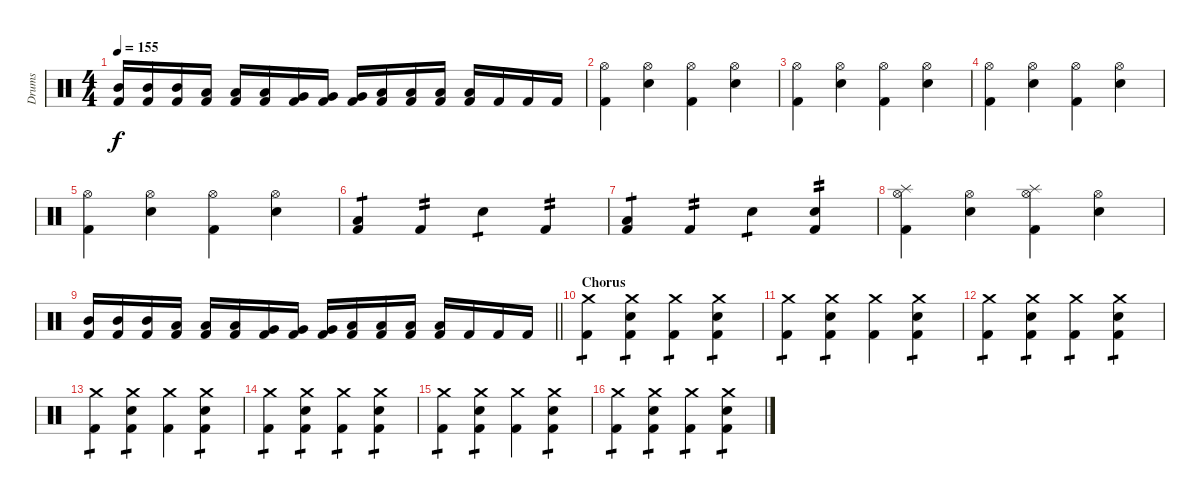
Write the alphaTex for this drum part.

\track ("Drums" "Drums") {instrument percussion}
\staff {score}
\articulation defaults
\ts (4 4)
\tempo 155
\clef neutral
\ks c
("Kick (hit) 2" "Mid Tom (hit)").16{dy f} ("Kick (hit) 2" "Mid Tom (hit)").16 ("Kick (hit) 2" "Mid Tom (hit)").16 ("Kick (hit) 2" "Low Tom (hit)").16 ("Kick (hit) 2" "Low Tom (hit)").16 ("Kick (hit) 2" "Low Tom (hit)").16 ("Kick (hit) 2" "Very Low Tom (hit)").16 ("Kick (hit) 2" "Very Low Tom (hit)").16 ("Kick (hit) 2" "Very Low Tom (hit)").16 ("Kick (hit) 2" "Low Floor Tom (hit)").16 ("Kick (hit) 2" "Low Floor Tom (hit)").16 ("Kick (hit) 2" "Low Floor Tom (hit)").16 ("Kick (hit) 2" "Low Floor Tom (hit)").16 "Kick (hit) 2".16 "Kick (hit) 2".16 "Kick (hit) 2".16 |
("Hi-Hat (open)" "Kick (hit) 2").4 ("Hi-Hat (open)" "Snare (hit) 2").4 ("Hi-Hat (open)" "Kick (hit) 2").4 ("Hi-Hat (open)" "Snare (hit) 2").4 |
("Hi-Hat (open)" "Kick (hit) 2").4 ("Hi-Hat (open)" "Snare (hit) 2").4 ("Hi-Hat (open)" "Kick (hit) 2").4 ("Hi-Hat (open)" "Snare (hit) 2").4 |
("Hi-Hat (open)" "Kick (hit) 2").4 ("Hi-Hat (open)" "Snare (hit) 2").4 ("Hi-Hat (open)" "Kick (hit) 2").4 ("Hi-Hat (open)" "Snare (hit) 2").4 |
("Hi-Hat (open)" "Kick (hit) 2").4 ("Hi-Hat (open)" "Snare (hit) 2").4 ("Hi-Hat (open)" "Kick (hit) 2").4 ("Hi-Hat (open)" "Snare (hit) 2").4 |
("Kick (hit) 2" "Low Floor Tom (hit)").4{tp 1} "Kick (hit) 2".4{tp 2} "Snare (hit) 2".4{tp 1} "Kick (hit) 2".4{tp 2} |
("Kick (hit) 2" "Low Floor Tom (hit)").4{tp 1} "Kick (hit) 2".4{tp 2} "Snare (hit) 2".4{tp 1} ("Kick (hit) 2" "Snare (hit) 2").4{tp 2} |
("Hi-Hat (open)" "Kick (hit) 2" "Splash (hit)").4 ("Hi-Hat (open)" "Snare (hit) 2").4 ("Hi-Hat (open)" "Kick (hit) 2" "Splash (hit)").4 ("Hi-Hat (open)" "Snare (hit) 2").4 |
\barLineRight lightlight
("Kick (hit) 2" "Mid Tom (hit)").16 ("Kick (hit) 2" "Mid Tom (hit)").16 ("Kick (hit) 2" "Mid Tom (hit)").16 ("Kick (hit) 2" "Low Tom (hit)").16 ("Kick (hit) 2" "Low Tom (hit)").16 ("Kick (hit) 2" "Low Tom (hit)").16 ("Kick (hit) 2" "Very Low Tom (hit)").16 ("Kick (hit) 2" "Very Low Tom (hit)").16 ("Kick (hit) 2" "Very Low Tom (hit)").16 ("Kick (hit) 2" "Low Floor Tom (hit)").16 ("Kick (hit) 2" "Low Floor Tom (hit)").16 ("Kick (hit) 2" "Low Floor Tom (hit)").16 ("Kick (hit) 2" "Low Floor Tom (hit)").16 "Kick (hit) 2".16 "Kick (hit) 2".16 "Kick (hit) 2".16 |
\section ("" "Chorus")
("Crash medium (hit)" "Kick (hit) 2").4{tp 1} ("Crash medium (hit)" "Snare (hit) 2" "Kick (hit) 2").4{tp 1} ("Crash medium (hit)" "Kick (hit) 2").4{tp 1} ("Crash medium (hit)" "Snare (hit) 2" "Kick (hit) 2").4{tp 1} |
("Crash medium (hit)" "Kick (hit) 2").4{tp 1} ("Crash medium (hit)" "Snare (hit) 2" "Kick (hit) 2").4{tp 1} ("Crash medium (hit)" "Kick (hit) 2").4 ("Crash medium (hit)" "Snare (hit) 2" "Kick (hit) 2").4{tp 1} |
("Crash medium (hit)" "Kick (hit) 2").4{tp 1} ("Crash medium (hit)" "Snare (hit) 2" "Kick (hit) 2").4{tp 1} ("Crash medium (hit)" "Kick (hit) 2").4{tp 1} ("Crash medium (hit)" "Snare (hit) 2" "Kick (hit) 2").4{tp 1} |
("Crash medium (hit)" "Kick (hit) 2").4{tp 1} ("Crash medium (hit)" "Snare (hit) 2" "Kick (hit) 2").4{tp 1} ("Crash medium (hit)" "Kick (hit) 2").4 ("Crash medium (hit)" "Snare (hit) 2" "Kick (hit) 2").4{tp 1} |
("Crash medium (hit)" "Kick (hit) 2").4{tp 1} ("Crash medium (hit)" "Snare (hit) 2" "Kick (hit) 2").4{tp 1} ("Crash medium (hit)" "Kick (hit) 2").4{tp 1} ("Crash medium (hit)" "Snare (hit) 2" "Kick (hit) 2").4{tp 1} |
("Crash medium (hit)" "Kick (hit) 2").4{tp 1} ("Crash medium (hit)" "Snare (hit) 2" "Kick (hit) 2").4{tp 1} ("Crash medium (hit)" "Kick (hit) 2").4 ("Crash medium (hit)" "Snare (hit) 2" "Kick (hit) 2").4{tp 1} |
("Crash medium (hit)" "Kick (hit) 2").4{tp 1} ("Crash medium (hit)" "Snare (hit) 2" "Kick (hit) 2").4{tp 1} ("Crash medium (hit)" "Kick (hit) 2").4{tp 1} ("Crash medium (hit)" "Snare (hit) 2" "Kick (hit) 2").4{tp 1}
